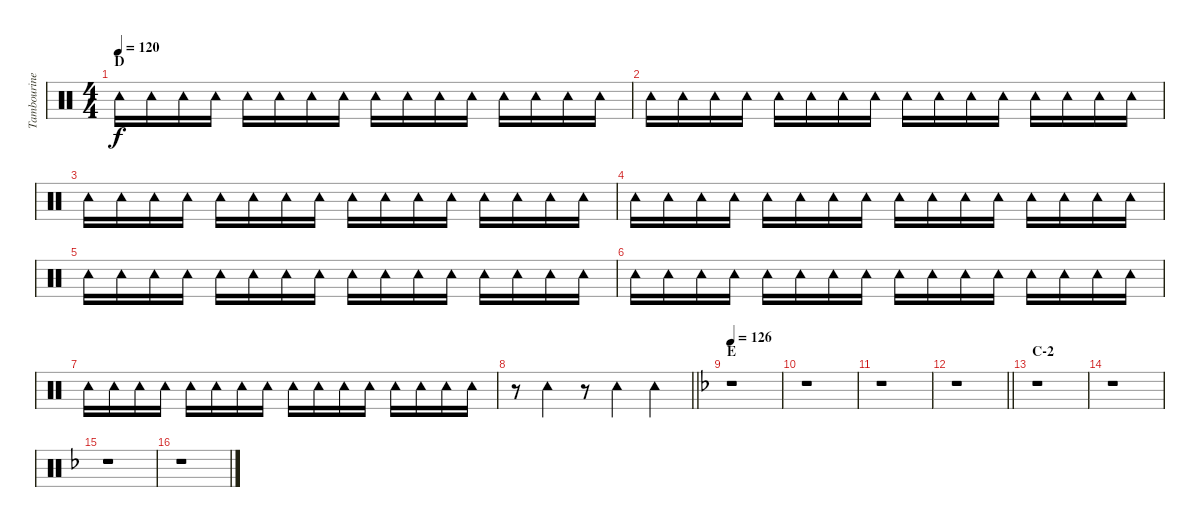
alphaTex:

\track ("Tambourine" "Tambourine") {instrument percussion}
\staff {score}
\articulation defaults
\ts (4 4)
\section ("" "D")
\tempo 120
\clef neutral
\ks c "Tambourine (hit)".16{dy f} "Tambourine (hit)".16 "Tambourine (hit)".16 "Tambourine (hit)".16 "Tambourine (hit)".16 "Tambourine (hit)".16 "Tambourine (hit)".16 "Tambourine (hit)".16 "Tambourine (hit)".16 "Tambourine (hit)".16 "Tambourine (hit)".16 "Tambourine (hit)".16 "Tambourine (hit)".16 "Tambourine (hit)".16 "Tambourine (hit)".16 "Tambourine (hit)".16
|
"Tambourine (hit)".16 "Tambourine (hit)".16 "Tambourine (hit)".16 "Tambourine (hit)".16 "Tambourine (hit)".16 "Tambourine (hit)".16 "Tambourine (hit)".16 "Tambourine (hit)".16 "Tambourine (hit)".16 "Tambourine (hit)".16 "Tambourine (hit)".16 "Tambourine (hit)".16 "Tambourine (hit)".16 "Tambourine (hit)".16 "Tambourine (hit)".16 "Tambourine (hit)".16 |
"Tambourine (hit)".16 "Tambourine (hit)".16 "Tambourine (hit)".16 "Tambourine (hit)".16 "Tambourine (hit)".16 "Tambourine (hit)".16 "Tambourine (hit)".16 "Tambourine (hit)".16 "Tambourine (hit)".16 "Tambourine (hit)".16 "Tambourine (hit)".16 "Tambourine (hit)".16 "Tambourine (hit)".16 "Tambourine (hit)".16 "Tambourine (hit)".16 "Tambourine (hit)".16 |
"Tambourine (hit)".16 "Tambourine (hit)".16 "Tambourine (hit)".16 "Tambourine (hit)".16 "Tambourine (hit)".16 "Tambourine (hit)".16 "Tambourine (hit)".16 "Tambourine (hit)".16 "Tambourine (hit)".16 "Tambourine (hit)".16 "Tambourine (hit)".16 "Tambourine (hit)".16 "Tambourine (hit)".16 "Tambourine (hit)".16 "Tambourine (hit)".16 "Tambourine (hit)".16 |
"Tambourine (hit)".16 "Tambourine (hit)".16 "Tambourine (hit)".16 "Tambourine (hit)".16 "Tambourine (hit)".16 "Tambourine (hit)".16 "Tambourine (hit)".16 "Tambourine (hit)".16 "Tambourine (hit)".16 "Tambourine (hit)".16 "Tambourine (hit)".16 "Tambourine (hit)".16 "Tambourine (hit)".16 "Tambourine (hit)".16 "Tambourine (hit)".16 "Tambourine (hit)".16 |
"Tambourine (hit)".16 "Tambourine (hit)".16 "Tambourine (hit)".16 "Tambourine (hit)".16 "Tambourine (hit)".16 "Tambourine (hit)".16 "Tambourine (hit)".16 "Tambourine (hit)".16 "Tambourine (hit)".16 "Tambourine (hit)".16 "Tambourine (hit)".16 "Tambourine (hit)".16 "Tambourine (hit)".16 "Tambourine (hit)".16 "Tambourine (hit)".16 "Tambourine (hit)".16 |
"Tambourine (hit)".16 "Tambourine (hit)".16 "Tambourine (hit)".16 "Tambourine (hit)".16 "Tambourine (hit)".16 "Tambourine (hit)".16 "Tambourine (hit)".16 "Tambourine (hit)".16 "Tambourine (hit)".16 "Tambourine (hit)".16 "Tambourine (hit)".16 "Tambourine (hit)".16 "Tambourine (hit)".16 "Tambourine (hit)".16 "Tambourine (hit)".16 "Tambourine (hit)".16 |
\barLineRight lightlight
r.8 "Tambourine (hit)".4 r.8 "Tambourine (hit)".4 "Tambourine (hit)".4 |
\section ("" "E")
\tempo 126
\ks f
r.1 |
r.1 |
r.1 |
\barLineRight lightlight
r.1 |
\section ("" "C-2")
r.1 |
r.1 |
r.1 |
r.1
